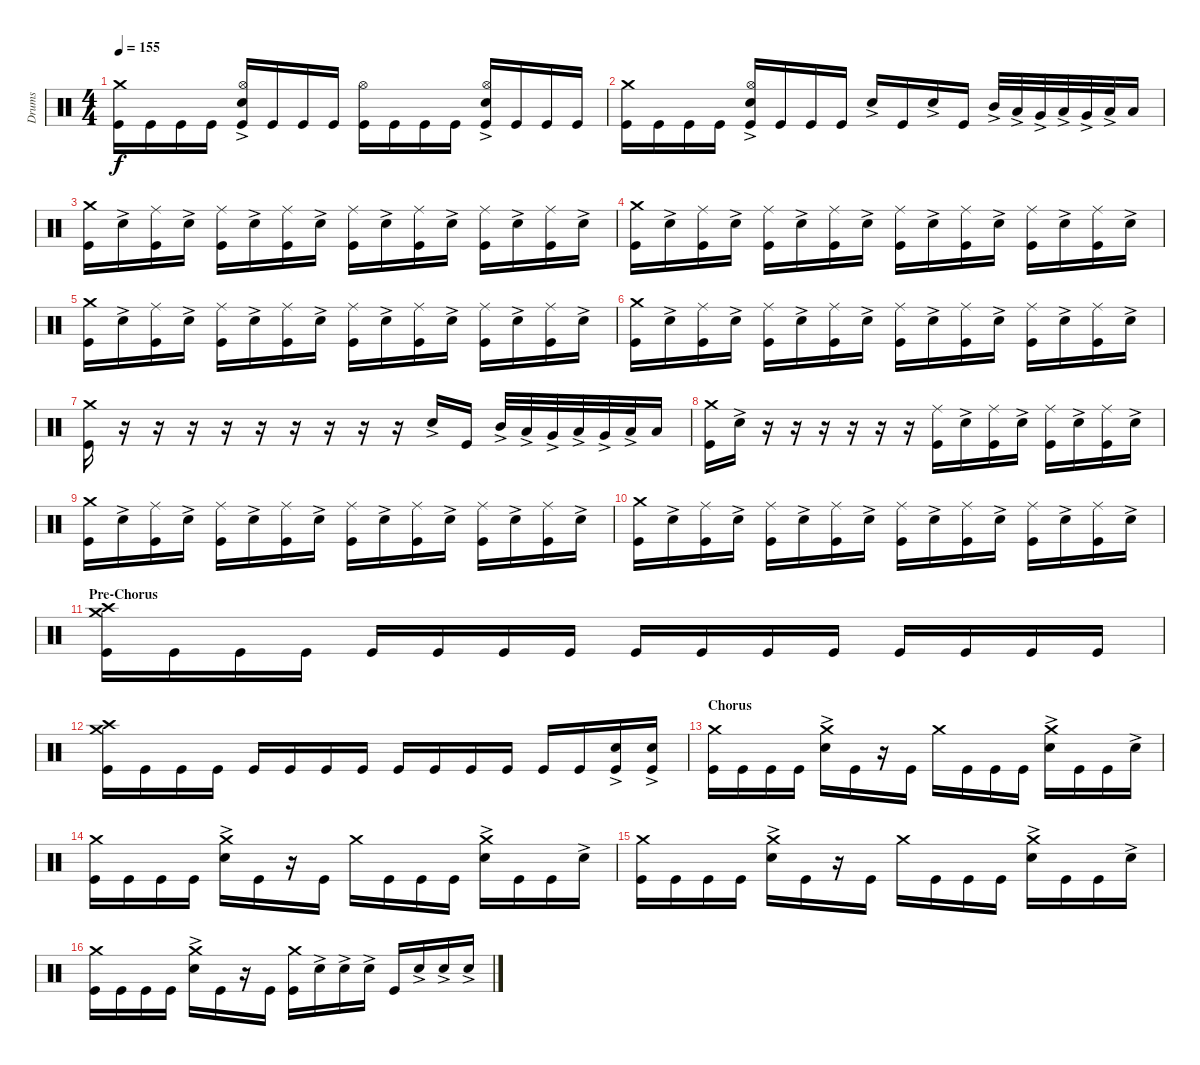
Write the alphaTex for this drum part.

\track ("Drums" "Drums") {instrument percussion}
\staff {score}
\articulation defaults
\ts (4 4)
\tempo 155
\clef neutral
\ks c
("Kick (hit)" "Crash medium (hit)").16{dy f} "Kick (hit)".16 "Kick (hit)".16 "Kick (hit)".16 ("Kick (hit)" "Hi-Hat (open)" "Snare (hit) 2"{ac}).16 "Kick (hit)".16 "Kick (hit)".16 "Kick (hit)".16 ("Kick (hit)" "Hi-Hat (open)").16 "Kick (hit)".16 "Kick (hit)".16 "Kick (hit)".16 ("Kick (hit)" "Hi-Hat (open)" "Snare (hit) 2"{ac}).16 "Kick (hit)".16 "Kick (hit)".16 "Kick (hit)".16 |
("Kick (hit)" "Crash medium (hit)").16 "Kick (hit)".16 "Kick (hit)".16 "Kick (hit)".16 ("Kick (hit)" "Hi-Hat (open)" "Snare (hit) 2"{ac}).16 "Kick (hit)".16 "Kick (hit)".16 "Kick (hit)".16 "Snare (hit) 2"{ac}.16 "Kick (hit)".16 "Snare (hit) 2"{ac}.16 "Kick (hit)".16 "Mid Tom (hit)"{ac}.32 "Low Tom (hit)"{ac}.32 "Very Low Tom (hit)"{ac}.32 "Low Tom (hit)"{ac}.32 "Very Low Tom (hit)"{ac}.32 "Low Floor Tom (hit)"{ac}.32 "Low Floor Tom (hit)".16 |
("Kick (hit)" "Crash medium (hit)").16 "Snare (hit) 2"{ac}.16 ("Kick (hit)" "Ride (middle)").16 "Snare (hit) 2"{ac}.16 ("Kick (hit)" "Ride (middle)").16 "Snare (hit) 2"{ac}.16 ("Kick (hit)" "Ride (middle)").16 "Snare (hit) 2"{ac}.16 ("Kick (hit)" "Ride (middle)").16 "Snare (hit) 2"{ac}.16 ("Kick (hit)" "Ride (middle)").16 "Snare (hit) 2"{ac}.16 ("Kick (hit)" "Ride (middle)").16 "Snare (hit) 2"{ac}.16 ("Kick (hit)" "Ride (middle)").16 "Snare (hit) 2"{ac}.16 |
("Kick (hit)" "Crash medium (hit)").16 "Snare (hit) 2"{ac}.16 ("Kick (hit)" "Ride (middle)").16 "Snare (hit) 2"{ac}.16 ("Kick (hit)" "Ride (middle)").16 "Snare (hit) 2"{ac}.16 ("Kick (hit)" "Ride (middle)").16 "Snare (hit) 2"{ac}.16 ("Kick (hit)" "Ride (middle)").16 "Snare (hit) 2"{ac}.16 ("Kick (hit)" "Ride (middle)").16 "Snare (hit) 2"{ac}.16 ("Kick (hit)" "Ride (middle)").16 "Snare (hit) 2"{ac}.16 ("Kick (hit)" "Ride (middle)").16 "Snare (hit) 2"{ac}.16 |
("Kick (hit)" "Crash medium (hit)").16 "Snare (hit) 2"{ac}.16 ("Kick (hit)" "Ride (middle)").16 "Snare (hit) 2"{ac}.16 ("Kick (hit)" "Ride (middle)").16 "Snare (hit) 2"{ac}.16 ("Kick (hit)" "Ride (middle)").16 "Snare (hit) 2"{ac}.16 ("Kick (hit)" "Ride (middle)").16 "Snare (hit) 2"{ac}.16 ("Kick (hit)" "Ride (middle)").16 "Snare (hit) 2"{ac}.16 ("Kick (hit)" "Ride (middle)").16 "Snare (hit) 2"{ac}.16 ("Kick (hit)" "Ride (middle)").16 "Snare (hit) 2"{ac}.16 |
("Kick (hit)" "Crash medium (hit)").16 "Snare (hit) 2"{ac}.16 ("Kick (hit)" "Ride (middle)").16 "Snare (hit) 2"{ac}.16 ("Kick (hit)" "Ride (middle)").16 "Snare (hit) 2"{ac}.16 ("Kick (hit)" "Ride (middle)").16 "Snare (hit) 2"{ac}.16 ("Kick (hit)" "Ride (middle)").16 "Snare (hit) 2"{ac}.16 ("Kick (hit)" "Ride (middle)").16 "Snare (hit) 2"{ac}.16 ("Kick (hit)" "Ride (middle)").16 "Snare (hit) 2"{ac}.16 ("Kick (hit)" "Ride (middle)").16 "Snare (hit) 2"{ac}.16 |
("Kick (hit)" "Crash medium (hit)").16 r.16 r.16 r.16 r.16 r.16 r.16 r.16 r.16 r.16 "Snare (hit) 2"{ac}.16 "Kick (hit)".16 "Mid Tom (hit)"{ac}.32 "Low Tom (hit)"{ac}.32 "Very Low Tom (hit)"{ac}.32 "Low Tom (hit)"{ac}.32 "Very Low Tom (hit)"{ac}.32 "Low Floor Tom (hit)"{ac}.32 "Low Floor Tom (hit)".16 |
("Kick (hit)" "Crash medium (hit)").16 "Snare (hit) 2"{ac}.16 r.16 r.16 r.16 r.16 r.16 r.16 ("Kick (hit)" "Ride (middle)").16 "Snare (hit) 2"{ac}.16 ("Kick (hit)" "Ride (middle)").16 "Snare (hit) 2"{ac}.16 ("Kick (hit)" "Ride (middle)").16 "Snare (hit) 2"{ac}.16 ("Kick (hit)" "Ride (middle)").16 "Snare (hit) 2"{ac}.16 |
("Kick (hit)" "Crash medium (hit)").16 "Snare (hit) 2"{ac}.16 ("Kick (hit)" "Ride (middle)").16 "Snare (hit) 2"{ac}.16 ("Kick (hit)" "Ride (middle)").16 "Snare (hit) 2"{ac}.16 ("Kick (hit)" "Ride (middle)").16 "Snare (hit) 2"{ac}.16 ("Kick (hit)" "Ride (middle)").16 "Snare (hit) 2"{ac}.16 ("Kick (hit)" "Ride (middle)").16 "Snare (hit) 2"{ac}.16 ("Kick (hit)" "Ride (middle)").16 "Snare (hit) 2"{ac}.16 ("Kick (hit)" "Ride (middle)").16 "Snare (hit) 2"{ac}.16 |
("Kick (hit)" "Crash medium (hit)").16 "Snare (hit) 2"{ac}.16 ("Kick (hit)" "Ride (middle)").16 "Snare (hit) 2"{ac}.16 ("Kick (hit)" "Ride (middle)").16 "Snare (hit) 2"{ac}.16 ("Kick (hit)" "Ride (middle)").16 "Snare (hit) 2"{ac}.16 ("Kick (hit)" "Ride (middle)").16 "Snare (hit) 2"{ac}.16 ("Kick (hit)" "Ride (middle)").16 "Snare (hit) 2"{ac}.16 ("Kick (hit)" "Ride (middle)").16 "Snare (hit) 2"{ac}.16 ("Kick (hit)" "Ride (middle)").16 "Snare (hit) 2"{ac}.16 |
\section ("" "Pre-Chorus")
("Kick (hit)" "Crash medium (hit)" "Crash high (hit)").16 "Kick (hit)".16 "Kick (hit)".16 "Kick (hit)".16 "Kick (hit)".16 "Kick (hit)".16 "Kick (hit)".16 "Kick (hit)".16 "Kick (hit)".16 "Kick (hit)".16 "Kick (hit)".16 "Kick (hit)".16 "Kick (hit)".16 "Kick (hit)".16 "Kick (hit)".16 "Kick (hit)".16 |
("Kick (hit)" "Crash medium (hit)" "Crash high (hit)").16 "Kick (hit)".16 "Kick (hit)".16 "Kick (hit)".16 "Kick (hit)".16 "Kick (hit)".16 "Kick (hit)".16 "Kick (hit)".16 "Kick (hit)".16 "Kick (hit)".16 "Kick (hit)".16 "Kick (hit)".16 "Kick (hit)".16 "Kick (hit)".16 ("Kick (hit)" "Snare (hit) 2"{ac}).16 ("Kick (hit)" "Snare (hit) 2"{ac}).16 |
\section ("" "Chorus")
("Crash medium (hit)" "Kick (hit)").16 "Kick (hit)".16 "Kick (hit)".16 "Kick (hit)".16 ("Crash medium (hit)" "Snare (hit) 2"{ac}).16 "Kick (hit)".16 r.16 "Kick (hit)".16 "Crash medium (hit)".16 "Kick (hit)".16 "Kick (hit)".16 "Kick (hit)".16 ("Crash medium (hit)" "Snare (hit) 2"{ac}).16 "Kick (hit)".16 "Kick (hit)".16 "Snare (hit) 2"{ac}.16 |
("Crash medium (hit)" "Kick (hit)").16 "Kick (hit)".16 "Kick (hit)".16 "Kick (hit)".16 ("Crash medium (hit)" "Snare (hit) 2"{ac}).16 "Kick (hit)".16 r.16 "Kick (hit)".16 "Crash medium (hit)".16 "Kick (hit)".16 "Kick (hit)".16 "Kick (hit)".16 ("Crash medium (hit)" "Snare (hit) 2"{ac}).16 "Kick (hit)".16 "Kick (hit)".16 "Snare (hit) 2"{ac}.16 |
("Crash medium (hit)" "Kick (hit)").16 "Kick (hit)".16 "Kick (hit)".16 "Kick (hit)".16 ("Crash medium (hit)" "Snare (hit) 2"{ac}).16 "Kick (hit)".16 r.16 "Kick (hit)".16 "Crash medium (hit)".16 "Kick (hit)".16 "Kick (hit)".16 "Kick (hit)".16 ("Crash medium (hit)" "Snare (hit) 2"{ac}).16 "Kick (hit)".16 "Kick (hit)".16 "Snare (hit) 2"{ac}.16 |
("Crash medium (hit)" "Kick (hit)").16 "Kick (hit)".16 "Kick (hit)".16 "Kick (hit)".16 ("Crash medium (hit)" "Snare (hit) 2"{ac}).16 "Kick (hit)".16 r.16 "Kick (hit)".16 ("Kick (hit)" "Crash medium (hit)").16 "Snare (hit) 2"{ac}.16 "Snare (hit) 2"{ac}.16 "Snare (hit) 2"{ac}.16 "Kick (hit)".16 "Snare (hit) 2"{ac}.16 "Snare (hit) 2"{ac}.16 "Snare (hit) 2"{ac}.16
